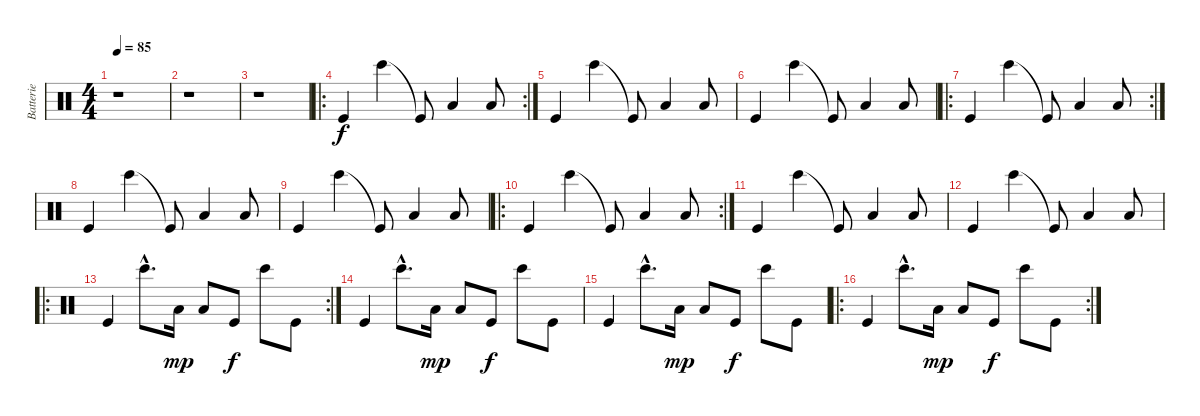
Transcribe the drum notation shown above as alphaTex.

\track ("Batterie" "Batterie") {instrument percussion}
\staff {score}
\articulation defaults
\ts (4 4)
\tempo 85
\clef neutral
\ks c
r.1{dy mf} |
r.1 |
r.1 |
\ro
\rc 2 "Kick (hit)".4{dy f} "Bongo High (hit)".4 "Kick (hit)"{t}.8 "Low Tom (hit)".4 "Low Tom (hit)".8
|
"Kick (hit)".4 "Bongo High (hit)".4 "Kick (hit)"{t}.8 "Low Tom (hit)".4 "Low Tom (hit)".8 |
"Kick (hit)".4 "Bongo High (hit)".4 "Kick (hit)"{t}.8 "Low Tom (hit)".4 "Low Tom (hit)".8 |
\ro
\rc 2 "Kick (hit)".4 "Bongo High (hit)".4 "Kick (hit)"{t}.8 "Low Tom (hit)".4 "Low Tom (hit)".8
|
"Kick (hit)".4 "Bongo High (hit)".4 "Kick (hit)"{t}.8 "Low Tom (hit)".4 "Low Tom (hit)".8 |
"Kick (hit)".4 "Bongo High (hit)".4 "Kick (hit)"{t}.8 "Low Tom (hit)".4 "Low Tom (hit)".8 |
\ro
\rc 2 "Kick (hit)".4 "Bongo High (hit)".4 "Kick (hit)"{t}.8 "Low Tom (hit)".4 "Low Tom (hit)".8
|
"Kick (hit)".4 "Bongo High (hit)".4 "Kick (hit)"{t}.8 "Low Tom (hit)".4 "Low Tom (hit)".8 |
"Kick (hit)".4 "Bongo High (hit)".4 "Kick (hit)"{t}.8 "Low Tom (hit)".4 "Low Tom (hit)".8 |
\ro
\rc 2 "Kick (hit)".4 "Bongo High (hit)"{hac}.8{d} "Low Tom (hit)".16{dy mp} "Low Tom (hit)".8 "Kick (hit)".8{dy f} "Bongo High (hit)".8 "Kick (hit)".8
|
"Kick (hit)".4 "Bongo High (hit)"{hac}.8{d} "Low Tom (hit)".16{dy mp} "Low Tom (hit)".8 "Kick (hit)".8{dy f} "Bongo High (hit)".8 "Kick (hit)".8 |
"Kick (hit)".4 "Bongo High (hit)"{hac}.8{d} "Low Tom (hit)".16{dy mp} "Low Tom (hit)".8 "Kick (hit)".8{dy f} "Bongo High (hit)".8 "Kick (hit)".8 |
\ro
\rc 2 "Kick (hit)".4 "Bongo High (hit)"{hac}.8{d} "Low Tom (hit)".16{dy mp} "Low Tom (hit)".8 "Kick (hit)".8{dy f} "Bongo High (hit)".8 "Kick (hit)".8
